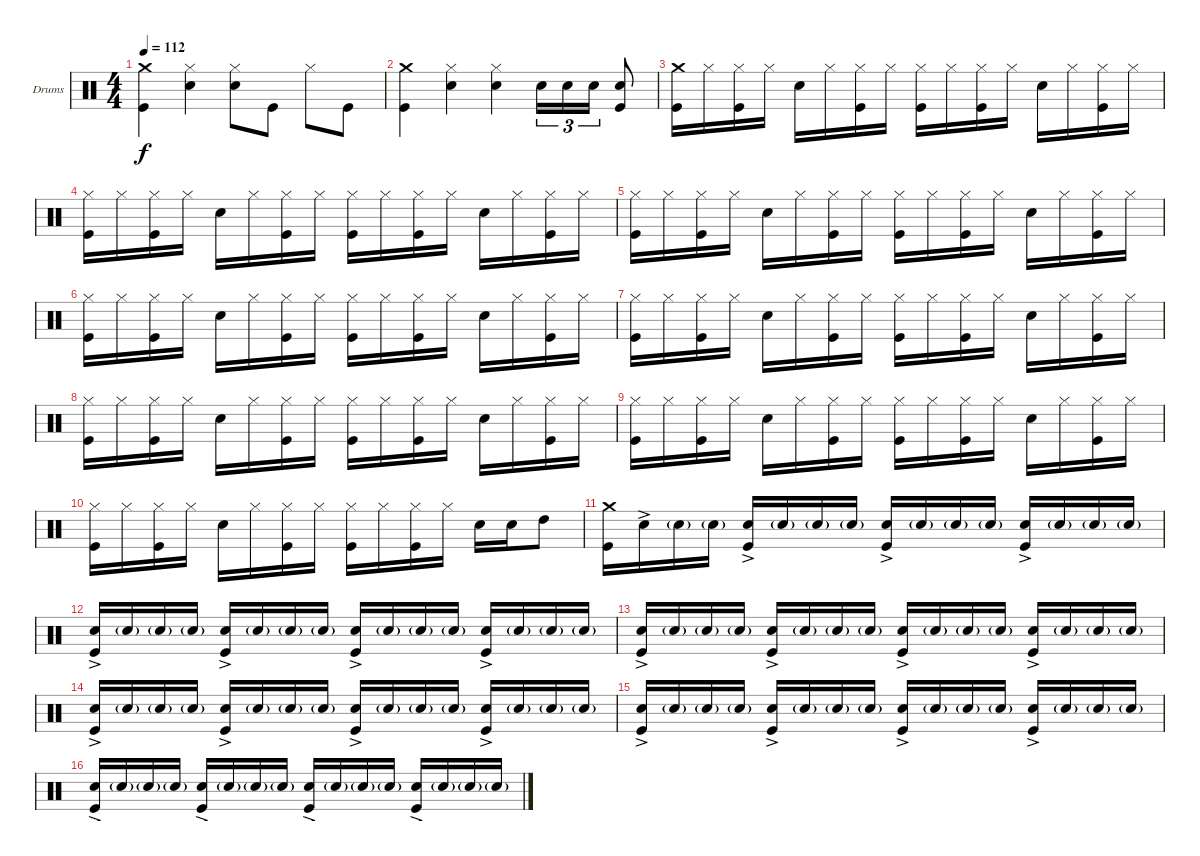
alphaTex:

\bracketExtendMode groupsimilarinstruments
\firstSystemTrackNameOrientation horizontal
\otherSystemsTrackNameOrientation horizontal
\track ("Drumkit" "Drums") {instrument percussion}
\staff {score}
\articulation defaults
\ts (4 4)
\tempo 112
\clef neutral
\ks c
("Crash medium (hit)" "Kick (hit)").4{dy f} ("Hi-Hat (closed)" "Snare (hit) 2").4 ("Hi-Hat (closed)" "Snare (hit) 2").8 "Kick (hit)".8 "Hi-Hat (closed)".8 "Kick (hit)".8 |
("Crash medium (hit)" "Kick (hit)").4 ("Hi-Hat (closed)" "Snare (hit) 2").4 ("Hi-Hat (closed)" "Snare (hit) 2").4 "Snare (hit) 2".16{tu (3 2)} "Snare (hit) 2".16{tu (3 2)} "Snare (hit) 2".16{tu (3 2)} ("Snare (hit) 2" "Kick (hit)").8 |
("Crash medium (hit)" "Kick (hit)").16 "Hi-Hat (closed)".16 ("Hi-Hat (closed)" "Kick (hit)").16 "Hi-Hat (closed)".16 "Snare (hit) 2".16 "Hi-Hat (closed)".16 ("Hi-Hat (closed)" "Kick (hit)").16 "Hi-Hat (closed)".16 ("Hi-Hat (closed)" "Kick (hit)").16 "Hi-Hat (closed)".16 ("Hi-Hat (closed)" "Kick (hit)").16 "Hi-Hat (closed)".16 "Snare (hit) 2".16 "Hi-Hat (closed)".16 ("Hi-Hat (closed)" "Kick (hit)").16 "Hi-Hat (closed)".16 |
("Hi-Hat (closed)" "Kick (hit)").16 "Hi-Hat (closed)".16 ("Hi-Hat (closed)" "Kick (hit)").16 "Hi-Hat (closed)".16 "Snare (hit) 2".16 "Hi-Hat (closed)".16 ("Hi-Hat (closed)" "Kick (hit)").16 "Hi-Hat (closed)".16 ("Hi-Hat (closed)" "Kick (hit)").16 "Hi-Hat (closed)".16 ("Hi-Hat (closed)" "Kick (hit)").16 "Hi-Hat (closed)".16 "Snare (hit) 2".16 "Hi-Hat (closed)".16 ("Hi-Hat (closed)" "Kick (hit)").16 "Hi-Hat (closed)".16 |
("Hi-Hat (closed)" "Kick (hit)").16 "Hi-Hat (closed)".16 ("Hi-Hat (closed)" "Kick (hit)").16 "Hi-Hat (closed)".16 "Snare (hit) 2".16 "Hi-Hat (closed)".16 ("Hi-Hat (closed)" "Kick (hit)").16 "Hi-Hat (closed)".16 ("Hi-Hat (closed)" "Kick (hit)").16 "Hi-Hat (closed)".16 ("Hi-Hat (closed)" "Kick (hit)").16 "Hi-Hat (closed)".16 "Snare (hit) 2".16 "Hi-Hat (closed)".16 ("Hi-Hat (closed)" "Kick (hit)").16 "Hi-Hat (closed)".16 |
("Hi-Hat (closed)" "Kick (hit)").16 "Hi-Hat (closed)".16 ("Hi-Hat (closed)" "Kick (hit)").16 "Hi-Hat (closed)".16 "Snare (hit) 2".16 "Hi-Hat (closed)".16 ("Hi-Hat (closed)" "Kick (hit)").16 "Hi-Hat (closed)".16 ("Hi-Hat (closed)" "Kick (hit)").16 "Hi-Hat (closed)".16 ("Hi-Hat (closed)" "Kick (hit)").16 "Hi-Hat (closed)".16 "Snare (hit) 2".16 "Hi-Hat (closed)".16 ("Hi-Hat (closed)" "Kick (hit)").16 "Hi-Hat (closed)".16 |
("Hi-Hat (closed)" "Kick (hit)").16 "Hi-Hat (closed)".16 ("Hi-Hat (closed)" "Kick (hit)").16 "Hi-Hat (closed)".16 "Snare (hit) 2".16 "Hi-Hat (closed)".16 ("Hi-Hat (closed)" "Kick (hit)").16 "Hi-Hat (closed)".16 ("Hi-Hat (closed)" "Kick (hit)").16 "Hi-Hat (closed)".16 ("Hi-Hat (closed)" "Kick (hit)").16 "Hi-Hat (closed)".16 "Snare (hit) 2".16 "Hi-Hat (closed)".16 ("Hi-Hat (closed)" "Kick (hit)").16 "Hi-Hat (closed)".16 |
("Hi-Hat (closed)" "Kick (hit)").16 "Hi-Hat (closed)".16 ("Hi-Hat (closed)" "Kick (hit)").16 "Hi-Hat (closed)".16 "Snare (hit) 2".16 "Hi-Hat (closed)".16 ("Hi-Hat (closed)" "Kick (hit)").16 "Hi-Hat (closed)".16 ("Hi-Hat (closed)" "Kick (hit)").16 "Hi-Hat (closed)".16 ("Hi-Hat (closed)" "Kick (hit)").16 "Hi-Hat (closed)".16 "Snare (hit) 2".16 "Hi-Hat (closed)".16 ("Hi-Hat (closed)" "Kick (hit)").16 "Hi-Hat (closed)".16 |
("Hi-Hat (closed)" "Kick (hit)").16 "Hi-Hat (closed)".16 ("Hi-Hat (closed)" "Kick (hit)").16 "Hi-Hat (closed)".16 "Snare (hit) 2".16 "Hi-Hat (closed)".16 ("Hi-Hat (closed)" "Kick (hit)").16 "Hi-Hat (closed)".16 ("Hi-Hat (closed)" "Kick (hit)").16 "Hi-Hat (closed)".16 ("Hi-Hat (closed)" "Kick (hit)").16 "Hi-Hat (closed)".16 "Snare (hit) 2".16 "Hi-Hat (closed)".16 ("Hi-Hat (closed)" "Kick (hit)").16 "Hi-Hat (closed)".16 |
("Hi-Hat (closed)" "Kick (hit)").16 "Hi-Hat (closed)".16 ("Hi-Hat (closed)" "Kick (hit)").16 "Hi-Hat (closed)".16 "Snare (hit) 2".16 "Hi-Hat (closed)".16 ("Hi-Hat (closed)" "Kick (hit)").16 "Hi-Hat (closed)".16 ("Hi-Hat (closed)" "Kick (hit)").16 "Hi-Hat (closed)".16 ("Hi-Hat (closed)" "Kick (hit)").16 "Hi-Hat (closed)".16 "Snare (hit) 2".16 "Snare (hit) 2".16 "High Tom (hit)".8 |
("Crash medium (hit)" "Kick (hit)").16 "Snare (hit) 2"{ac}.16 "Snare (hit) 2"{g}.16 "Snare (hit) 2"{g}.16 ("Snare (hit) 2"{ac} "Kick (hit)").16 "Snare (hit) 2"{g}.16 "Snare (hit) 2"{g}.16 "Snare (hit) 2"{g}.16 ("Snare (hit) 2"{ac} "Kick (hit)").16 "Snare (hit) 2"{g}.16 "Snare (hit) 2"{g}.16 "Snare (hit) 2"{g}.16 ("Snare (hit) 2"{ac} "Kick (hit)").16 "Snare (hit) 2"{g}.16 "Snare (hit) 2"{g}.16 "Snare (hit) 2"{g}.16 |
("Snare (hit) 2"{ac} "Kick (hit)").16 "Snare (hit) 2"{g}.16 "Snare (hit) 2"{g}.16 "Snare (hit) 2"{g}.16 ("Snare (hit) 2"{ac} "Kick (hit)").16 "Snare (hit) 2"{g}.16 "Snare (hit) 2"{g}.16 "Snare (hit) 2"{g}.16 ("Snare (hit) 2"{ac} "Kick (hit)").16 "Snare (hit) 2"{g}.16 "Snare (hit) 2"{g}.16 "Snare (hit) 2"{g}.16 ("Snare (hit) 2"{ac} "Kick (hit)").16 "Snare (hit) 2"{g}.16 "Snare (hit) 2"{g}.16 "Snare (hit) 2"{g}.16 |
("Snare (hit) 2"{ac} "Kick (hit)").16 "Snare (hit) 2"{g}.16 "Snare (hit) 2"{g}.16 "Snare (hit) 2"{g}.16 ("Snare (hit) 2"{ac} "Kick (hit)").16 "Snare (hit) 2"{g}.16 "Snare (hit) 2"{g}.16 "Snare (hit) 2"{g}.16 ("Snare (hit) 2"{ac} "Kick (hit)").16 "Snare (hit) 2"{g}.16 "Snare (hit) 2"{g}.16 "Snare (hit) 2"{g}.16 ("Snare (hit) 2"{ac} "Kick (hit)").16 "Snare (hit) 2"{g}.16 "Snare (hit) 2"{g}.16 "Snare (hit) 2"{g}.16 |
("Snare (hit) 2"{ac} "Kick (hit)").16 "Snare (hit) 2"{g}.16 "Snare (hit) 2"{g}.16 "Snare (hit) 2"{g}.16 ("Snare (hit) 2"{ac} "Kick (hit)").16 "Snare (hit) 2"{g}.16 "Snare (hit) 2"{g}.16 "Snare (hit) 2"{g}.16 ("Snare (hit) 2"{ac} "Kick (hit)").16 "Snare (hit) 2"{g}.16 "Snare (hit) 2"{g}.16 "Snare (hit) 2"{g}.16 ("Snare (hit) 2"{ac} "Kick (hit)").16 "Snare (hit) 2"{g}.16 "Snare (hit) 2"{g}.16 "Snare (hit) 2"{g}.16 |
("Snare (hit) 2"{ac} "Kick (hit)").16 "Snare (hit) 2"{g}.16 "Snare (hit) 2"{g}.16 "Snare (hit) 2"{g}.16 ("Snare (hit) 2"{ac} "Kick (hit)").16 "Snare (hit) 2"{g}.16 "Snare (hit) 2"{g}.16 "Snare (hit) 2"{g}.16 ("Snare (hit) 2"{ac} "Kick (hit)").16 "Snare (hit) 2"{g}.16 "Snare (hit) 2"{g}.16 "Snare (hit) 2"{g}.16 ("Snare (hit) 2"{ac} "Kick (hit)").16 "Snare (hit) 2"{g}.16 "Snare (hit) 2"{g}.16 "Snare (hit) 2"{g}.16 |
("Snare (hit) 2"{ac} "Kick (hit)").16 "Snare (hit) 2"{g}.16 "Snare (hit) 2"{g}.16 "Snare (hit) 2"{g}.16 ("Snare (hit) 2"{ac} "Kick (hit)").16 "Snare (hit) 2"{g}.16 "Snare (hit) 2"{g}.16 "Snare (hit) 2"{g}.16 ("Snare (hit) 2"{ac} "Kick (hit)").16 "Snare (hit) 2"{g}.16 "Snare (hit) 2"{g}.16 "Snare (hit) 2"{g}.16 ("Snare (hit) 2"{ac} "Kick (hit)").16 "Snare (hit) 2"{g}.16 "Snare (hit) 2"{g}.16 "Snare (hit) 2"{g}.16
